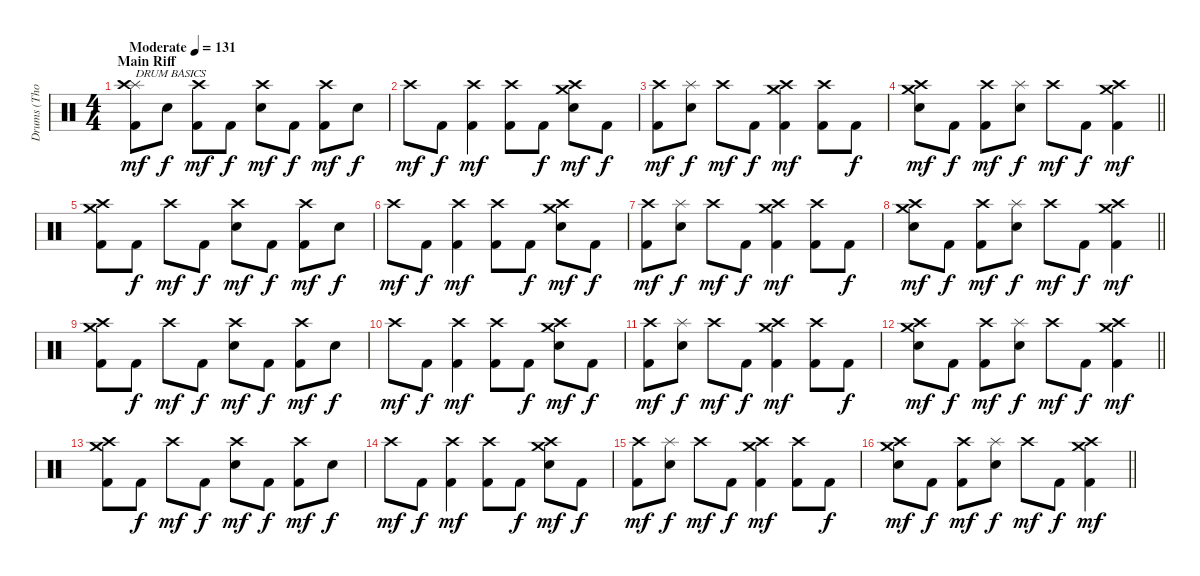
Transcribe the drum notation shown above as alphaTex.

\track ("Drums (Thomas Haake)" "Drums (Tho") {instrument percussion}
\staff {score}
\articulation defaults
\ts (4 4)
\section ("" "Main Riff")
\tempo (131 "Moderate")
\clef neutral
\ks c
("Splash (hit)" "Crash high (hit)" "Kick (hit) 2").8{txt "DRUM BASICS" dy mf} "Electric Snare (hit)".8{dy f} ("Crash high (hit)" "Kick (hit) 2").8{dy mf} "Kick (hit) 2".8{dy f} ("Crash high (hit)" "Electric Snare (hit)").8{dy mf} "Kick (hit) 2".8{dy f} ("Crash high (hit)" "Kick (hit) 2").8{dy mf} "Electric Snare (hit)".8{dy f} |
"Crash high (hit)".8{dy mf} "Kick (hit) 2".8{dy f} ("Crash high (hit)" "Kick (hit) 2").4{dy mf} ("Crash high (hit)" "Kick (hit) 2").8 "Kick (hit) 2".8{dy f} ("Crash medium (hit)" "Crash high (hit)" "Electric Snare (hit)").8{dy mf} "Kick (hit) 2".8{dy f} |
("Crash high (hit)" "Kick (hit) 2").8{dy mf} ("Splash (hit)" "Electric Snare (hit)").8{dy f} "Crash high (hit)".8{dy mf} "Kick (hit) 2".8{dy f} ("Crash medium (hit)" "Crash high (hit)" "Kick (hit) 2").4{dy mf} ("Crash high (hit)" "Kick (hit) 2").8 "Kick (hit) 2".8{dy f} |
\barLineRight lightlight
("Crash medium (hit)" "Crash high (hit)" "Electric Snare (hit)").8{dy mf} "Kick (hit) 2".8{dy f} ("Crash high (hit)" "Kick (hit) 2").8{dy mf} ("Splash (hit)" "Electric Snare (hit)").8{dy f} "Crash high (hit)".8{dy mf} "Kick (hit) 2".8{dy f} ("Crash medium (hit)" "Crash high (hit)" "Kick (hit) 2").4{dy mf} |
("Crash medium (hit)" "Crash high (hit)" "Kick (hit) 2").8 "Kick (hit) 2".8{dy f} "Crash high (hit)".8{dy mf} "Kick (hit) 2".8{dy f} ("Crash high (hit)" "Electric Snare (hit)").8{dy mf} "Kick (hit) 2".8{dy f} ("Crash high (hit)" "Kick (hit) 2").8{dy mf} "Electric Snare (hit)".8{dy f} |
"Crash high (hit)".8{dy mf} "Kick (hit) 2".8{dy f} ("Crash high (hit)" "Kick (hit) 2").4{dy mf} ("Crash high (hit)" "Kick (hit) 2").8 "Kick (hit) 2".8{dy f} ("Crash medium (hit)" "Crash high (hit)" "Electric Snare (hit)").8{dy mf} "Kick (hit) 2".8{dy f} |
("Crash high (hit)" "Kick (hit) 2").8{dy mf} ("Splash (hit)" "Electric Snare (hit)").8{dy f} "Crash high (hit)".8{dy mf} "Kick (hit) 2".8{dy f} ("Crash medium (hit)" "Crash high (hit)" "Kick (hit) 2").4{dy mf} ("Crash high (hit)" "Kick (hit) 2").8 "Kick (hit) 2".8{dy f} |
\barLineRight lightlight
("Crash medium (hit)" "Crash high (hit)" "Electric Snare (hit)").8{dy mf} "Kick (hit) 2".8{dy f} ("Crash high (hit)" "Kick (hit) 2").8{dy mf} ("Splash (hit)" "Electric Snare (hit)").8{dy f} "Crash high (hit)".8{dy mf} "Kick (hit) 2".8{dy f} ("Crash medium (hit)" "Crash high (hit)" "Kick (hit) 2").4{dy mf} |
("Crash medium (hit)" "Crash high (hit)" "Kick (hit) 2").8 "Kick (hit) 2".8{dy f} "Crash high (hit)".8{dy mf} "Kick (hit) 2".8{dy f} ("Crash high (hit)" "Electric Snare (hit)").8{dy mf} "Kick (hit) 2".8{dy f} ("Crash high (hit)" "Kick (hit) 2").8{dy mf} "Electric Snare (hit)".8{dy f} |
"Crash high (hit)".8{dy mf} "Kick (hit) 2".8{dy f} ("Crash high (hit)" "Kick (hit) 2").4{dy mf} ("Crash high (hit)" "Kick (hit) 2").8 "Kick (hit) 2".8{dy f} ("Crash medium (hit)" "Crash high (hit)" "Electric Snare (hit)").8{dy mf} "Kick (hit) 2".8{dy f} |
("Crash high (hit)" "Kick (hit) 2").8{dy mf} ("Splash (hit)" "Electric Snare (hit)").8{dy f} "Crash high (hit)".8{dy mf} "Kick (hit) 2".8{dy f} ("Crash medium (hit)" "Crash high (hit)" "Kick (hit) 2").4{dy mf} ("Crash high (hit)" "Kick (hit) 2").8 "Kick (hit) 2".8{dy f} |
\barLineRight lightlight
("Crash medium (hit)" "Crash high (hit)" "Electric Snare (hit)").8{dy mf} "Kick (hit) 2".8{dy f} ("Crash high (hit)" "Kick (hit) 2").8{dy mf} ("Splash (hit)" "Electric Snare (hit)").8{dy f} "Crash high (hit)".8{dy mf} "Kick (hit) 2".8{dy f} ("Crash medium (hit)" "Crash high (hit)" "Kick (hit) 2").4{dy mf} |
("Crash medium (hit)" "Crash high (hit)" "Kick (hit) 2").8 "Kick (hit) 2".8{dy f} "Crash high (hit)".8{dy mf} "Kick (hit) 2".8{dy f} ("Crash high (hit)" "Electric Snare (hit)").8{dy mf} "Kick (hit) 2".8{dy f} ("Crash high (hit)" "Kick (hit) 2").8{dy mf} "Electric Snare (hit)".8{dy f} |
"Crash high (hit)".8{dy mf} "Kick (hit) 2".8{dy f} ("Crash high (hit)" "Kick (hit) 2").4{dy mf} ("Crash high (hit)" "Kick (hit) 2").8 "Kick (hit) 2".8{dy f} ("Crash medium (hit)" "Crash high (hit)" "Electric Snare (hit)").8{dy mf} "Kick (hit) 2".8{dy f} |
("Crash high (hit)" "Kick (hit) 2").8{dy mf} ("Splash (hit)" "Electric Snare (hit)").8{dy f} "Crash high (hit)".8{dy mf} "Kick (hit) 2".8{dy f} ("Crash medium (hit)" "Crash high (hit)" "Kick (hit) 2").4{dy mf} ("Crash high (hit)" "Kick (hit) 2").8 "Kick (hit) 2".8{dy f} |
\barLineRight lightlight
("Crash medium (hit)" "Crash high (hit)" "Electric Snare (hit)").8{dy mf} "Kick (hit) 2".8{dy f} ("Crash high (hit)" "Kick (hit) 2").8{dy mf} ("Splash (hit)" "Electric Snare (hit)").8{dy f} "Crash high (hit)".8{dy mf} "Kick (hit) 2".8{dy f} ("Crash medium (hit)" "Crash high (hit)" "Kick (hit) 2").4{dy mf}
